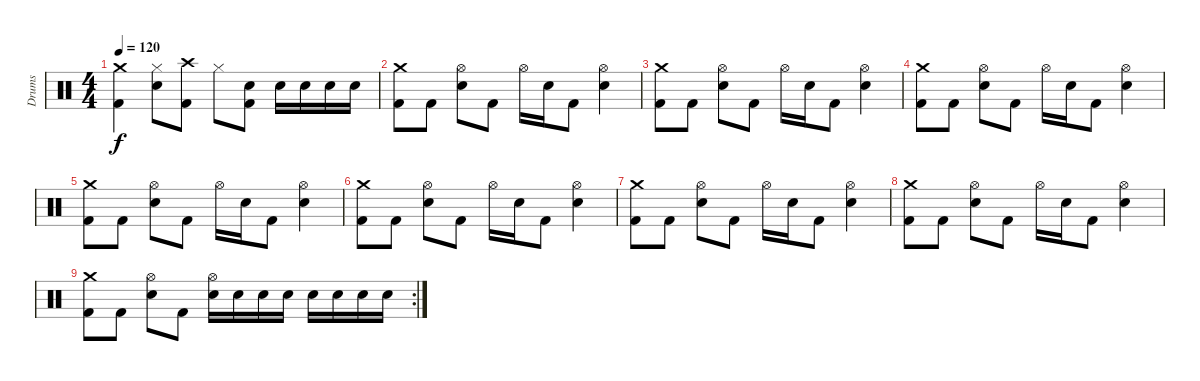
\track ("Drums" "Drums") {instrument percussion}
\staff {score}
\articulation defaults
\ts (4 4)
\tempo 120
\clef neutral
\ks c
("Crash medium (hit)" "Kick (hit) 2").4{dy f} ("Hi-Hat (closed)" "Snare (hit) 2").8 ("Crash high (hit)" "Kick (hit) 2").8 "Hi-Hat (closed)".8 ("Snare (hit) 2" "Kick (hit) 2").8 "Snare (hit) 2".16 "Snare (hit) 2".16 "Snare (hit) 2".16 "Snare (hit) 2".16 |
("Crash medium (hit)" "Kick (hit) 2").8 "Kick (hit) 2".8 ("Hi-Hat (open)" "Snare (hit) 2").8 "Kick (hit) 2".8 "Hi-Hat (open)".16 "Snare (hit) 2".16 "Kick (hit) 2".8 ("Hi-Hat (open)" "Snare (hit) 2").4 |
("Crash medium (hit)" "Kick (hit) 2").8 "Kick (hit) 2".8 ("Hi-Hat (open)" "Snare (hit) 2").8 "Kick (hit) 2".8 "Hi-Hat (open)".16 "Snare (hit) 2".16 "Kick (hit) 2".8 ("Hi-Hat (open)" "Snare (hit) 2").4 |
("Crash medium (hit)" "Kick (hit) 2").8 "Kick (hit) 2".8 ("Hi-Hat (open)" "Snare (hit) 2").8 "Kick (hit) 2".8 "Hi-Hat (open)".16 "Snare (hit) 2".16 "Kick (hit) 2".8 ("Hi-Hat (open)" "Snare (hit) 2").4 |
("Crash medium (hit)" "Kick (hit) 2").8 "Kick (hit) 2".8 ("Hi-Hat (open)" "Snare (hit) 2").8 "Kick (hit) 2".8 "Hi-Hat (open)".16 "Snare (hit) 2".16 "Kick (hit) 2".8 ("Hi-Hat (open)" "Snare (hit) 2").4 |
("Crash medium (hit)" "Kick (hit) 2").8 "Kick (hit) 2".8 ("Hi-Hat (open)" "Snare (hit) 2").8 "Kick (hit) 2".8 "Hi-Hat (open)".16 "Snare (hit) 2".16 "Kick (hit) 2".8 ("Hi-Hat (open)" "Snare (hit) 2").4 |
("Crash medium (hit)" "Kick (hit) 2").8 "Kick (hit) 2".8 ("Hi-Hat (open)" "Snare (hit) 2").8 "Kick (hit) 2".8 "Hi-Hat (open)".16 "Snare (hit) 2".16 "Kick (hit) 2".8 ("Hi-Hat (open)" "Snare (hit) 2").4 |
("Crash medium (hit)" "Kick (hit) 2").8 "Kick (hit) 2".8 ("Hi-Hat (open)" "Snare (hit) 2").8 "Kick (hit) 2".8 "Hi-Hat (open)".16 "Snare (hit) 2".16 "Kick (hit) 2".8 ("Hi-Hat (open)" "Snare (hit) 2").4 |
\rc 2
("Crash medium (hit)" "Kick (hit) 2").8 "Kick (hit) 2".8 ("Hi-Hat (open)" "Snare (hit) 2").8 "Kick (hit) 2".8 ("Hi-Hat (open)" "Snare (hit) 2").16 "Snare (hit) 2".16 "Snare (hit) 2".16 "Snare (hit) 2".16 "Snare (hit) 2".16 "Snare (hit) 2".16 "Snare (hit) 2".16 "Snare (hit) 2".16
